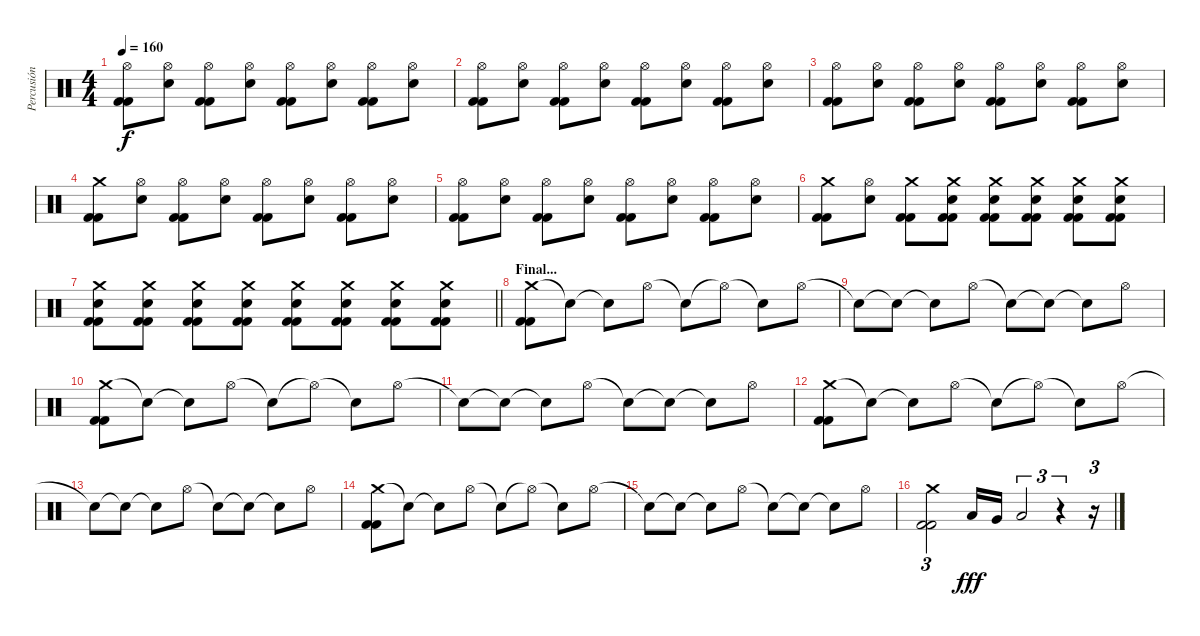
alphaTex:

\track ("Percusión" "Percusión") {instrument percussion}
\staff {score}
\articulation defaults
\ts (4 4)
\tempo 160
\clef neutral
\ks c
("Hi-Hat (open)" "Kick (hit) 2" "Kick (hit) 2").8{dy f} ("Hi-Hat (open)" "Electric Snare (hit)").8 ("Hi-Hat (open)" "Kick (hit) 2" "Kick (hit) 2").8 ("Hi-Hat (open)" "Electric Snare (hit)").8 ("Hi-Hat (open)" "Kick (hit) 2" "Kick (hit) 2").8 ("Hi-Hat (open)" "Electric Snare (hit)").8 ("Hi-Hat (open)" "Kick (hit) 2" "Kick (hit) 2").8 ("Hi-Hat (open)" "Electric Snare (hit)").8 |
("Hi-Hat (open)" "Kick (hit) 2" "Kick (hit) 2").8 ("Hi-Hat (open)" "Electric Snare (hit)").8 ("Hi-Hat (open)" "Kick (hit) 2" "Kick (hit) 2").8 ("Hi-Hat (open)" "Electric Snare (hit)").8 ("Hi-Hat (open)" "Kick (hit) 2" "Kick (hit) 2").8 ("Hi-Hat (open)" "Electric Snare (hit)").8 ("Hi-Hat (open)" "Kick (hit) 2" "Kick (hit) 2").8 ("Hi-Hat (open)" "Electric Snare (hit)").8 |
("Hi-Hat (open)" "Kick (hit) 2" "Kick (hit) 2").8 ("Hi-Hat (open)" "Electric Snare (hit)").8 ("Hi-Hat (open)" "Kick (hit) 2" "Kick (hit) 2").8 ("Hi-Hat (open)" "Electric Snare (hit)").8 ("Hi-Hat (open)" "Kick (hit) 2" "Kick (hit) 2").8 ("Hi-Hat (open)" "Electric Snare (hit)").8 ("Hi-Hat (open)" "Kick (hit) 2" "Kick (hit) 2").8 ("Hi-Hat (open)" "Electric Snare (hit)").8 |
("Crash medium (hit)" "Kick (hit) 2" "Kick (hit) 2").8 ("Hi-Hat (open)" "Electric Snare (hit)").8 ("Hi-Hat (open)" "Kick (hit) 2" "Kick (hit) 2").8 ("Hi-Hat (open)" "Electric Snare (hit)").8 ("Hi-Hat (open)" "Kick (hit) 2" "Kick (hit) 2").8 ("Hi-Hat (open)" "Electric Snare (hit)").8 ("Hi-Hat (open)" "Kick (hit) 2" "Kick (hit) 2").8 ("Hi-Hat (open)" "Electric Snare (hit)").8 |
("Hi-Hat (open)" "Kick (hit) 2" "Kick (hit) 2").8 ("Hi-Hat (open)" "Electric Snare (hit)").8 ("Hi-Hat (open)" "Kick (hit) 2" "Kick (hit) 2").8 ("Hi-Hat (open)" "Electric Snare (hit)").8 ("Hi-Hat (open)" "Kick (hit) 2" "Kick (hit) 2").8 ("Hi-Hat (open)" "Electric Snare (hit)").8 ("Hi-Hat (open)" "Kick (hit) 2" "Kick (hit) 2").8 ("Hi-Hat (open)" "Electric Snare (hit)").8 |
("Crash medium (hit)" "Kick (hit) 2" "Kick (hit) 2").8 ("Hi-Hat (open)" "Electric Snare (hit)").8 ("Crash medium (hit)" "Kick (hit) 2" "Kick (hit) 2").8 ("Crash medium (hit)" "Electric Snare (hit)" "Kick (hit) 2" "Kick (hit) 2").8 ("Crash medium (hit)" "Electric Snare (hit)" "Kick (hit) 2" "Kick (hit) 2").8 ("Crash medium (hit)" "Electric Snare (hit)" "Kick (hit) 2" "Kick (hit) 2").8 ("Crash medium (hit)" "Electric Snare (hit)" "Kick (hit) 2" "Kick (hit) 2").8 ("Crash medium (hit)" "Electric Snare (hit)" "Kick (hit) 2" "Kick (hit) 2").8 |
\barLineRight lightlight
("Crash medium (hit)" "Electric Snare (hit)" "Kick (hit) 2" "Kick (hit) 2").8 ("Crash medium (hit)" "Electric Snare (hit)" "Kick (hit) 2" "Kick (hit) 2").8 ("Crash medium (hit)" "Electric Snare (hit)" "Kick (hit) 2" "Kick (hit) 2").8 ("Crash medium (hit)" "Electric Snare (hit)" "Kick (hit) 2" "Kick (hit) 2").8 ("Crash medium (hit)" "Electric Snare (hit)" "Kick (hit) 2" "Kick (hit) 2").8 ("Crash medium (hit)" "Electric Snare (hit)" "Kick (hit) 2" "Kick (hit) 2").8 ("Crash medium (hit)" "Electric Snare (hit)" "Kick (hit) 2" "Kick (hit) 2").8 ("Crash medium (hit)" "Electric Snare (hit)" "Kick (hit) 2" "Kick (hit) 2").8 |
\section ("" "Final...")
("Crash medium (hit)" "Kick (hit) 2" "Kick (hit) 2").8 "Snare (hit)"{t}.8 "Snare (hit)"{t}.8 "Hi-Hat (open)".8 "Snare (hit)"{t}.8 "Hi-Hat (open)"{t}.8 "Snare (hit)"{t}.8 "Hi-Hat (open)".8 |
"Snare (hit)"{t}.8 "Snare (hit)"{t}.8 "Snare (hit)"{t}.8 "Hi-Hat (open)".8 "Snare (hit)"{t}.8 "Snare (hit)"{t}.8 "Snare (hit)"{t}.8 "Hi-Hat (open)".8 |
("Crash medium (hit)" "Kick (hit) 2" "Kick (hit) 2").8 "Snare (hit)"{t}.8 "Snare (hit)"{t}.8 "Hi-Hat (open)".8 "Snare (hit)"{t}.8 "Hi-Hat (open)"{t}.8 "Snare (hit)"{t}.8 "Hi-Hat (open)".8 |
"Snare (hit)"{t}.8 "Snare (hit)"{t}.8 "Snare (hit)"{t}.8 "Hi-Hat (open)".8 "Snare (hit)"{t}.8 "Snare (hit)"{t}.8 "Snare (hit)"{t}.8 "Hi-Hat (open)".8 |
("Crash medium (hit)" "Kick (hit) 2" "Kick (hit) 2").8 "Snare (hit)"{t}.8 "Snare (hit)"{t}.8 "Hi-Hat (open)".8 "Snare (hit)"{t}.8 "Hi-Hat (open)"{t}.8 "Snare (hit)"{t}.8 "Hi-Hat (open)".8 |
"Snare (hit)"{t}.8 "Snare (hit)"{t}.8 "Snare (hit)"{t}.8 "Hi-Hat (open)".8 "Snare (hit)"{t}.8 "Snare (hit)"{t}.8 "Snare (hit)"{t}.8 "Hi-Hat (open)".8 |
("Crash medium (hit)" "Kick (hit) 2" "Kick (hit) 2").8 "Snare (hit)"{t}.8 "Snare (hit)"{t}.8 "Hi-Hat (open)".8 "Snare (hit)"{t}.8 "Hi-Hat (open)"{t}.8 "Snare (hit)"{t}.8 "Hi-Hat (open)".8 |
"Snare (hit)"{t}.8 "Snare (hit)"{t}.8 "Snare (hit)"{t}.8 "Hi-Hat (open)".8 "Snare (hit)"{t}.8 "Snare (hit)"{t}.8 "Snare (hit)"{t}.8 "Hi-Hat (open)".8 |
("Crash medium (hit)" "Kick (hit) 2" "Kick (hit) 2").2{tu (3 2)} "Low Tom (hit)".16{dy fff} "Very Low Tom (hit)".16 "Low Floor Tom (hit)".2{tu (3 2)} r.4{tu (3 2)} r.16{tu (3 2)}
